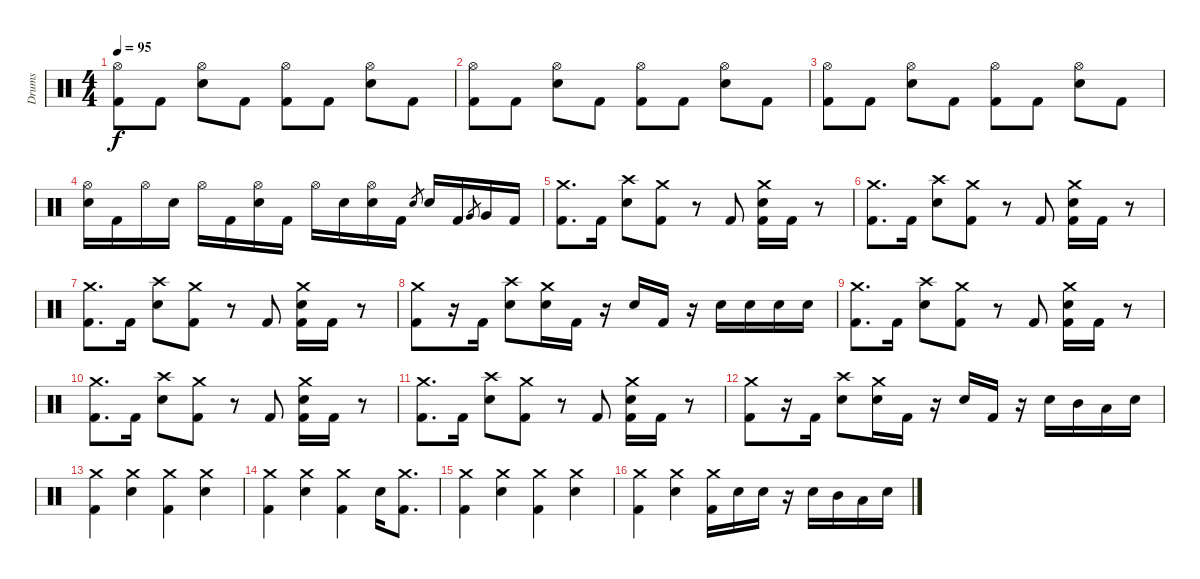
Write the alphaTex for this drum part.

\track ("Drums" "Drums") {instrument percussion}
\staff {score}
\articulation defaults
\ts (4 4)
\tempo 95
\clef neutral
\ks c
("Hi-Hat (open)" "Kick (hit) 2").8{dy f} "Kick (hit) 2".8 ("Hi-Hat (open)" "Electric Snare (hit)").8 "Kick (hit) 2".8 ("Hi-Hat (open)" "Kick (hit) 2").8 "Kick (hit) 2".8 ("Hi-Hat (open)" "Electric Snare (hit)").8 "Kick (hit) 2".8 |
("Hi-Hat (open)" "Kick (hit) 2").8 "Kick (hit) 2".8 ("Hi-Hat (open)" "Electric Snare (hit)").8 "Kick (hit) 2".8 ("Hi-Hat (open)" "Kick (hit) 2").8 "Kick (hit) 2".8 ("Hi-Hat (open)" "Electric Snare (hit)").8 "Kick (hit) 2".8 |
("Hi-Hat (open)" "Kick (hit) 2").8 "Kick (hit) 2".8 ("Hi-Hat (open)" "Electric Snare (hit)").8 "Kick (hit) 2".8 ("Hi-Hat (open)" "Kick (hit) 2").8 "Kick (hit) 2".8 ("Hi-Hat (open)" "Electric Snare (hit)").8 "Kick (hit) 2".8 |
("Hi-Hat (open)" "Electric Snare (hit)").16 "Kick (hit) 2".16 "Hi-Hat (open)".16 "Electric Snare (hit)".16 "Hi-Hat (open)".16 "Kick (hit) 2".16 ("Hi-Hat (open)" "Electric Snare (hit)").16 "Kick (hit) 2".16 "Hi-Hat (open)".16 "Electric Snare (hit)".16 ("Hi-Hat (open)" "Electric Snare (hit)").16 "Kick (hit) 2".16 "Electric Snare (hit)".8{gr} "Electric Snare (hit)".16 "Kick (hit) 2".16 "Very Low Tom (hit)".8{gr} "Very Low Tom (hit)".16 "Kick (hit) 2".16 |
("Crash medium (hit)" "Kick (hit) 2").8{d} "Kick (hit) 2".16 ("Crash high (hit)" "Electric Snare (hit)").8 ("Crash medium (hit)" "Kick (hit) 2").8 r.8 "Kick (hit) 2".8 ("Crash medium (hit)" "Electric Snare (hit)" "Kick (hit) 2").16 "Kick (hit) 2".16 r.8 |
("Crash medium (hit)" "Kick (hit) 2").8{d} "Kick (hit) 2".16 ("Crash high (hit)" "Electric Snare (hit)").8 ("Crash medium (hit)" "Kick (hit) 2").8 r.8 "Kick (hit) 2".8 ("Crash medium (hit)" "Electric Snare (hit)" "Kick (hit) 2").16 "Kick (hit) 2".16 r.8 |
("Crash medium (hit)" "Kick (hit) 2").8{d} "Kick (hit) 2".16 ("Crash high (hit)" "Electric Snare (hit)").8 ("Crash medium (hit)" "Kick (hit) 2").8 r.8 "Kick (hit) 2".8 ("Crash medium (hit)" "Electric Snare (hit)" "Kick (hit) 2").16 "Kick (hit) 2".16 r.8 |
("Crash medium (hit)" "Kick (hit) 2").8 r.16 "Kick (hit) 2".16 ("Crash high (hit)" "Electric Snare (hit)").8 ("Crash medium (hit)" "Electric Snare (hit)").16 "Kick (hit) 2".16 r.16 "Electric Snare (hit)".16 "Kick (hit) 2".16 r.16 "Electric Snare (hit)".16 "Electric Snare (hit)".16 "Electric Snare (hit)".16 "Electric Snare (hit)".16 |
("Crash medium (hit)" "Kick (hit) 2").8{d} "Kick (hit) 2".16 ("Crash high (hit)" "Electric Snare (hit)").8 ("Crash medium (hit)" "Kick (hit) 2").8 r.8 "Kick (hit) 2".8 ("Crash medium (hit)" "Electric Snare (hit)" "Kick (hit) 2").16 "Kick (hit) 2".16 r.8 |
("Crash medium (hit)" "Kick (hit) 2").8{d} "Kick (hit) 2".16 ("Crash high (hit)" "Electric Snare (hit)").8 ("Crash medium (hit)" "Kick (hit) 2").8 r.8 "Kick (hit) 2".8 ("Crash medium (hit)" "Electric Snare (hit)" "Kick (hit) 2").16 "Kick (hit) 2".16 r.8 |
("Crash medium (hit)" "Kick (hit) 2").8{d} "Kick (hit) 2".16 ("Crash high (hit)" "Electric Snare (hit)").8 ("Crash medium (hit)" "Kick (hit) 2").8 r.8 "Kick (hit) 2".8 ("Crash medium (hit)" "Electric Snare (hit)" "Kick (hit) 2").16 "Kick (hit) 2".16 r.8 |
("Crash medium (hit)" "Kick (hit) 2").8 r.16 "Kick (hit) 2".16 ("Crash high (hit)" "Electric Snare (hit)").8 ("Crash medium (hit)" "Electric Snare (hit)").16 "Kick (hit) 2".16 r.16 "Electric Snare (hit)".16 "Kick (hit) 2".16 r.16 "Electric Snare (hit)".16 "Mid Tom (hit)".16 "Low Tom (hit)".16 "Electric Snare (hit)".16 |
("Crash medium (hit)" "Kick (hit) 2").4 ("Crash medium (hit)" "Electric Snare (hit)").4 ("Crash medium (hit)" "Kick (hit) 2").4 ("Crash medium (hit)" "Electric Snare (hit)").4 |
("Crash medium (hit)" "Kick (hit) 2").4 ("Crash medium (hit)" "Electric Snare (hit)").4 ("Crash medium (hit)" "Kick (hit) 2").4 "Electric Snare (hit)".16 ("Crash medium (hit)" "Kick (hit) 2").8{d} |
("Crash medium (hit)" "Kick (hit) 2").4 ("Crash medium (hit)" "Electric Snare (hit)").4 ("Crash medium (hit)" "Kick (hit) 2").4 ("Crash medium (hit)" "Electric Snare (hit)").4 |
("Crash medium (hit)" "Kick (hit) 2").4 ("Crash medium (hit)" "Electric Snare (hit)").4 ("Crash medium (hit)" "Kick (hit) 2").16 "Electric Snare (hit)".16 "Electric Snare (hit)".16 r.16 "Electric Snare (hit)".16 "Mid Tom (hit)".16 "Low Tom (hit)".16 "Electric Snare (hit)".16
